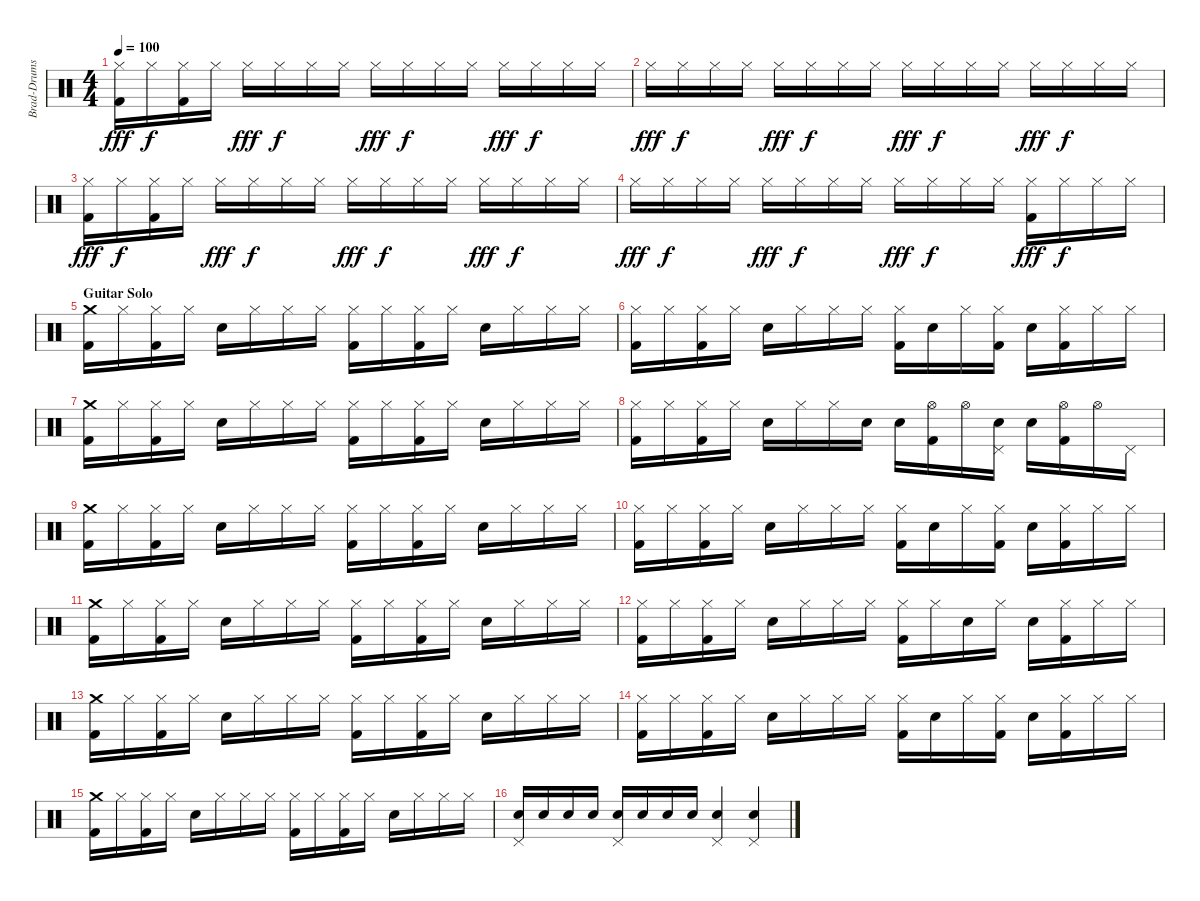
\track ("Brad-Drums" "Brad-Drums") {instrument percussion}
\staff {score}
\articulation defaults
\ts (4 4)
\tempo 100
\clef neutral
\ks c
("Hi-Hat (closed)" "Kick (hit) 2").16{dy fff} "Hi-Hat (closed)".16{dy f} ("Hi-Hat (closed)" "Kick (hit) 2").16 "Hi-Hat (closed)".16 "Hi-Hat (closed)".16{dy fff} "Hi-Hat (closed)".16{dy f} "Hi-Hat (closed)".16 "Hi-Hat (closed)".16 "Hi-Hat (closed)".16{dy fff} "Hi-Hat (closed)".16{dy f} "Hi-Hat (closed)".16 "Hi-Hat (closed)".16 "Hi-Hat (closed)".16{dy fff} "Hi-Hat (closed)".16{dy f} "Hi-Hat (closed)".16 "Hi-Hat (closed)".16 |
"Hi-Hat (closed)".16{dy fff} "Hi-Hat (closed)".16{dy f} "Hi-Hat (closed)".16 "Hi-Hat (closed)".16 "Hi-Hat (closed)".16{dy fff} "Hi-Hat (closed)".16{dy f} "Hi-Hat (closed)".16 "Hi-Hat (closed)".16 "Hi-Hat (closed)".16{dy fff} "Hi-Hat (closed)".16{dy f} "Hi-Hat (closed)".16 "Hi-Hat (closed)".16 "Hi-Hat (closed)".16{dy fff} "Hi-Hat (closed)".16{dy f} "Hi-Hat (closed)".16 "Hi-Hat (closed)".16 |
("Hi-Hat (closed)" "Kick (hit) 2").16{dy fff} "Hi-Hat (closed)".16{dy f} ("Hi-Hat (closed)" "Kick (hit) 2").16 "Hi-Hat (closed)".16 "Hi-Hat (closed)".16{dy fff} "Hi-Hat (closed)".16{dy f} "Hi-Hat (closed)".16 "Hi-Hat (closed)".16 "Hi-Hat (closed)".16{dy fff} "Hi-Hat (closed)".16{dy f} "Hi-Hat (closed)".16 "Hi-Hat (closed)".16 "Hi-Hat (closed)".16{dy fff} "Hi-Hat (closed)".16{dy f} "Hi-Hat (closed)".16 "Hi-Hat (closed)".16 |
"Hi-Hat (closed)".16{dy fff} "Hi-Hat (closed)".16{dy f} "Hi-Hat (closed)".16 "Hi-Hat (closed)".16 "Hi-Hat (closed)".16{dy fff} "Hi-Hat (closed)".16{dy f} "Hi-Hat (closed)".16 "Hi-Hat (closed)".16 "Hi-Hat (closed)".16{dy fff} "Hi-Hat (closed)".16{dy f} "Hi-Hat (closed)".16 "Hi-Hat (closed)".16 ("Hi-Hat (closed)" "Kick (hit) 2").16{dy fff} "Hi-Hat (closed)".16{dy f} "Hi-Hat (closed)".16 "Hi-Hat (closed)".16 |
\section ("" "Guitar Solo")
("Crash medium (hit)" "Kick (hit) 2").16 "Hi-Hat (closed)".16 ("Hi-Hat (closed)" "Kick (hit) 2").16 "Hi-Hat (closed)".16 "Electric Snare (hit)".16 "Hi-Hat (closed)".16 "Hi-Hat (closed)".16 "Hi-Hat (closed)".16 ("Hi-Hat (closed)" "Kick (hit) 2").16 "Hi-Hat (closed)".16 ("Hi-Hat (closed)" "Kick (hit) 2").16 "Hi-Hat (closed)".16 "Electric Snare (hit)".16 "Hi-Hat (closed)".16 "Hi-Hat (closed)".16 "Hi-Hat (closed)".16 |
("Hi-Hat (closed)" "Kick (hit) 2").16 "Hi-Hat (closed)".16 ("Hi-Hat (closed)" "Kick (hit) 2").16 "Hi-Hat (closed)".16 "Electric Snare (hit)".16 "Hi-Hat (closed)".16 "Hi-Hat (closed)".16 "Hi-Hat (closed)".16 ("Hi-Hat (closed)" "Kick (hit) 2").16 "Electric Snare (hit)".16 "Hi-Hat (closed)".16 ("Hi-Hat (closed)" "Kick (hit) 2").16 "Electric Snare (hit)".16 ("Hi-Hat (closed)" "Kick (hit) 2").16 "Hi-Hat (closed)".16 "Hi-Hat (closed)".16 |
("Crash medium (hit)" "Kick (hit) 2").16 "Hi-Hat (closed)".16 ("Hi-Hat (closed)" "Kick (hit) 2").16 "Hi-Hat (closed)".16 "Electric Snare (hit)".16 "Hi-Hat (closed)".16 "Hi-Hat (closed)".16 "Hi-Hat (closed)".16 ("Hi-Hat (closed)" "Kick (hit) 2").16 "Hi-Hat (closed)".16 ("Hi-Hat (closed)" "Kick (hit) 2").16 "Hi-Hat (closed)".16 "Electric Snare (hit)".16 "Hi-Hat (closed)".16 "Hi-Hat (closed)".16 "Hi-Hat (closed)".16 |
("Hi-Hat (closed)" "Kick (hit) 2").16 "Hi-Hat (closed)".16 ("Hi-Hat (closed)" "Kick (hit) 2").16 "Hi-Hat (closed)".16 "Electric Snare (hit)".16 "Hi-Hat (closed)".16 "Hi-Hat (closed)".16 "Electric Snare (hit)".16 "Electric Snare (hit)".16 ("Hi-Hat (open)" "Kick (hit) 2").16 "Hi-Hat (open)".16 ("Pedal Hi-Hat (hit)" "Electric Snare (hit)").16 "Electric Snare (hit)".16 ("Hi-Hat (open)" "Kick (hit) 2").16 "Hi-Hat (open)".16 "Pedal Hi-Hat (hit)".16 |
("Crash medium (hit)" "Kick (hit) 2").16 "Hi-Hat (closed)".16 ("Hi-Hat (closed)" "Kick (hit) 2").16 "Hi-Hat (closed)".16 "Electric Snare (hit)".16 "Hi-Hat (closed)".16 "Hi-Hat (closed)".16 "Hi-Hat (closed)".16 ("Hi-Hat (closed)" "Kick (hit) 2").16 "Hi-Hat (closed)".16 ("Hi-Hat (closed)" "Kick (hit) 2").16 "Hi-Hat (closed)".16 "Electric Snare (hit)".16 "Hi-Hat (closed)".16 "Hi-Hat (closed)".16 "Hi-Hat (closed)".16 |
("Hi-Hat (closed)" "Kick (hit) 2").16 "Hi-Hat (closed)".16 ("Hi-Hat (closed)" "Kick (hit) 2").16 "Hi-Hat (closed)".16 "Electric Snare (hit)".16 "Hi-Hat (closed)".16 "Hi-Hat (closed)".16 "Hi-Hat (closed)".16 ("Hi-Hat (closed)" "Kick (hit) 2").16 "Electric Snare (hit)".16 "Hi-Hat (closed)".16 ("Hi-Hat (closed)" "Kick (hit) 2").16 "Electric Snare (hit)".16 ("Hi-Hat (closed)" "Kick (hit) 2").16 "Hi-Hat (closed)".16 "Hi-Hat (closed)".16 |
("Crash medium (hit)" "Kick (hit) 2").16 "Hi-Hat (closed)".16 ("Hi-Hat (closed)" "Kick (hit) 2").16 "Hi-Hat (closed)".16 "Electric Snare (hit)".16 "Hi-Hat (closed)".16 "Hi-Hat (closed)".16 "Hi-Hat (closed)".16 ("Hi-Hat (closed)" "Kick (hit) 2").16 "Hi-Hat (closed)".16 ("Hi-Hat (closed)" "Kick (hit) 2").16 "Hi-Hat (closed)".16 "Electric Snare (hit)".16 "Hi-Hat (closed)".16 "Hi-Hat (closed)".16 "Hi-Hat (closed)".16 |
("Hi-Hat (closed)" "Kick (hit) 2").16 "Hi-Hat (closed)".16 ("Hi-Hat (closed)" "Kick (hit) 2").16 "Hi-Hat (closed)".16 "Electric Snare (hit)".16 "Hi-Hat (closed)".16 "Hi-Hat (closed)".16 "Hi-Hat (closed)".16 ("Hi-Hat (closed)" "Kick (hit) 2").16 "Hi-Hat (closed)".16 "Electric Snare (hit)".16 "Hi-Hat (closed)".16 "Electric Snare (hit)".16 ("Hi-Hat (closed)" "Kick (hit) 2").16 "Hi-Hat (closed)".16 "Hi-Hat (closed)".16 |
("Crash medium (hit)" "Kick (hit) 2").16 "Hi-Hat (closed)".16 ("Hi-Hat (closed)" "Kick (hit) 2").16 "Hi-Hat (closed)".16 "Electric Snare (hit)".16 "Hi-Hat (closed)".16 "Hi-Hat (closed)".16 "Hi-Hat (closed)".16 ("Hi-Hat (closed)" "Kick (hit) 2").16 "Hi-Hat (closed)".16 ("Hi-Hat (closed)" "Kick (hit) 2").16 "Hi-Hat (closed)".16 "Electric Snare (hit)".16 "Hi-Hat (closed)".16 "Hi-Hat (closed)".16 "Hi-Hat (closed)".16 |
("Hi-Hat (closed)" "Kick (hit) 2").16 "Hi-Hat (closed)".16 ("Hi-Hat (closed)" "Kick (hit) 2").16 "Hi-Hat (closed)".16 "Electric Snare (hit)".16 "Hi-Hat (closed)".16 "Hi-Hat (closed)".16 "Hi-Hat (closed)".16 ("Hi-Hat (closed)" "Kick (hit) 2").16 "Electric Snare (hit)".16 "Hi-Hat (closed)".16 ("Hi-Hat (closed)" "Kick (hit) 2").16 "Electric Snare (hit)".16 ("Hi-Hat (closed)" "Kick (hit) 2").16 "Hi-Hat (closed)".16 "Hi-Hat (closed)".16 |
("Crash medium (hit)" "Kick (hit) 2").16 "Hi-Hat (closed)".16 ("Hi-Hat (closed)" "Kick (hit) 2").16 "Hi-Hat (closed)".16 "Electric Snare (hit)".16 "Hi-Hat (closed)".16 "Hi-Hat (closed)".16 "Hi-Hat (closed)".16 ("Hi-Hat (closed)" "Kick (hit) 2").16 "Hi-Hat (closed)".16 ("Hi-Hat (closed)" "Kick (hit) 2").16 "Hi-Hat (closed)".16 "Electric Snare (hit)".16 "Hi-Hat (closed)".16 "Hi-Hat (closed)".16 "Hi-Hat (closed)".16 |
("Pedal Hi-Hat (hit)" "Electric Snare (hit)").16 "Electric Snare (hit)".16 "Electric Snare (hit)".16 "Electric Snare (hit)".16 ("Pedal Hi-Hat (hit)" "Electric Snare (hit)").16 "Electric Snare (hit)".16 "Electric Snare (hit)".16 "Electric Snare (hit)".16 ("Pedal Hi-Hat (hit)" "Electric Snare (hit)"{tr (40 64)}).4 ("Pedal Hi-Hat (hit)" "Electric Snare (hit)"{tr (40 64)}).4
